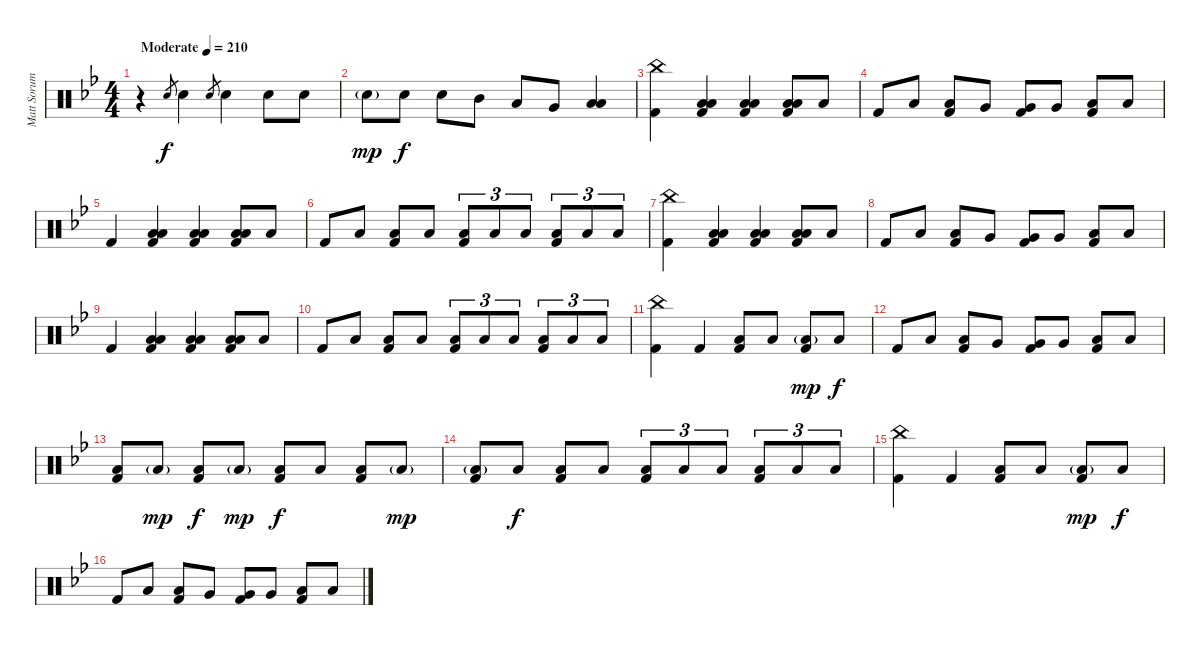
\track ("Matt Sorum - Drums" "Matt Sorum") {instrument percussion}
\staff {score}
\articulation defaults
\ts (4 4)
\tempo (210 "Moderate")
\clef neutral
\ks bb
r.4{dy f} "Snare (hit) 2".8{gr} "Snare (hit) 2".4 "Snare (hit) 2".8{gr} "Snare (hit) 2".4 "Snare (hit) 2".8 "Snare (hit) 2".8 |
"Snare (hit) 2"{g}.8{dy mp} "Snare (hit) 2".8{dy f} "Snare (hit) 2".8 "Mid Tom (hit)".8 "Low Tom (hit)".8 "Very Low Tom (hit)".8 ("Low Floor Tom (hit)" "Low Floor Tom (hit)").4 |
("China (hit)" "Kick (hit) 2").4 ("Low Tom (hit)" "Low Tom (hit)" "Kick (hit) 2").4 ("Low Tom (hit)" "Low Tom (hit)" "Kick (hit) 2").4 ("Low Tom (hit)" "Low Tom (hit)" "Kick (hit) 2").8 "Low Tom (hit)".8 |
"Kick (hit) 2".8 "Low Tom (hit)".8 ("Low Tom (hit)" "Kick (hit) 2").8 "Very Low Tom (hit)".8 ("Very Low Tom (hit)" "Kick (hit) 2").8 "Very Low Tom (hit)".8 ("Low Tom (hit)" "Kick (hit) 2").8 "Low Tom (hit)".8 |
"Kick (hit) 2".4 ("Low Tom (hit)" "Low Tom (hit)" "Kick (hit) 2").4 ("Low Tom (hit)" "Low Tom (hit)" "Kick (hit) 2").4 ("Low Tom (hit)" "Low Tom (hit)" "Kick (hit) 2").8 "Low Tom (hit)".8 |
"Kick (hit) 2".8 "Low Tom (hit)".8 ("Low Tom (hit)" "Kick (hit) 2").8 "Low Tom (hit)".8 ("Low Tom (hit)" "Kick (hit) 2").8{tu (3 2)} "Low Tom (hit)".8{tu (3 2)} "Low Tom (hit)".8{tu (3 2)} ("Low Tom (hit)" "Kick (hit) 2").8{tu (3 2)} "Low Tom (hit)".8{tu (3 2)} "Low Tom (hit)".8{tu (3 2)} |
("China (hit)" "Kick (hit) 2").4 ("Low Tom (hit)" "Low Tom (hit)" "Kick (hit) 2").4 ("Low Tom (hit)" "Low Tom (hit)" "Kick (hit) 2").4 ("Low Tom (hit)" "Low Tom (hit)" "Kick (hit) 2").8 "Low Tom (hit)".8 |
"Kick (hit) 2".8 "Low Tom (hit)".8 ("Low Tom (hit)" "Kick (hit) 2").8 "Very Low Tom (hit)".8 ("Very Low Tom (hit)" "Kick (hit) 2").8 "Very Low Tom (hit)".8 ("Low Tom (hit)" "Kick (hit) 2").8 "Low Tom (hit)".8 |
"Kick (hit) 2".4 ("Low Tom (hit)" "Low Tom (hit)" "Kick (hit) 2").4 ("Low Tom (hit)" "Low Tom (hit)" "Kick (hit) 2").4 ("Low Tom (hit)" "Low Tom (hit)" "Kick (hit) 2").8 "Low Tom (hit)".8 |
"Kick (hit) 2".8 "Low Tom (hit)".8 ("Low Tom (hit)" "Kick (hit) 2").8 "Low Tom (hit)".8 ("Low Tom (hit)" "Kick (hit) 2").8{tu (3 2)} "Low Tom (hit)".8{tu (3 2)} "Low Tom (hit)".8{tu (3 2)} ("Low Tom (hit)" "Kick (hit) 2").8{tu (3 2)} "Low Tom (hit)".8{tu (3 2)} "Low Tom (hit)".8{tu (3 2)} |
("China (hit)" "Kick (hit) 2").4 "Kick (hit) 2".4 ("Low Tom (hit)" "Kick (hit) 2").8 "Low Tom (hit)".8 ("Low Tom (hit)"{g} "Kick (hit) 2").8{dy mp} "Low Tom (hit)".8{dy f} |
"Kick (hit) 2".8 "Low Tom (hit)".8 ("Low Tom (hit)" "Kick (hit) 2").8 "Very Low Tom (hit)".8 ("Very Low Tom (hit)" "Kick (hit) 2").8 "Very Low Tom (hit)".8 ("Low Tom (hit)" "Kick (hit) 2").8 "Low Tom (hit)".8 |
("Low Tom (hit)" "Kick (hit) 2").8 "Low Tom (hit)"{g}.8{dy mp} ("Low Tom (hit)" "Kick (hit) 2").8{dy f} "Low Tom (hit)"{g}.8{dy mp} ("Low Tom (hit)" "Kick (hit) 2").8{dy f} "Low Tom (hit)".8 ("Low Tom (hit)" "Kick (hit) 2").8 "Low Tom (hit)"{g}.8{dy mp} |
("Low Tom (hit)"{g} "Kick (hit) 2").8 "Low Tom (hit)".8{dy f} ("Low Tom (hit)" "Kick (hit) 2").8 "Low Tom (hit)".8 ("Low Tom (hit)" "Kick (hit) 2").8{tu (3 2)} "Low Tom (hit)".8{tu (3 2)} "Low Tom (hit)".8{tu (3 2)} ("Low Tom (hit)" "Kick (hit) 2").8{tu (3 2)} "Low Tom (hit)".8{tu (3 2)} "Low Tom (hit)".8{tu (3 2)} |
("China (hit)" "Kick (hit) 2").4 "Kick (hit) 2".4 ("Low Tom (hit)" "Kick (hit) 2").8 "Low Tom (hit)".8 ("Low Tom (hit)"{g} "Kick (hit) 2").8{dy mp} "Low Tom (hit)".8{dy f} |
"Kick (hit) 2".8 "Low Tom (hit)".8 ("Low Tom (hit)" "Kick (hit) 2").8 "Very Low Tom (hit)".8 ("Very Low Tom (hit)" "Kick (hit) 2").8 "Very Low Tom (hit)".8 ("Low Tom (hit)" "Kick (hit) 2").8 "Low Tom (hit)".8
